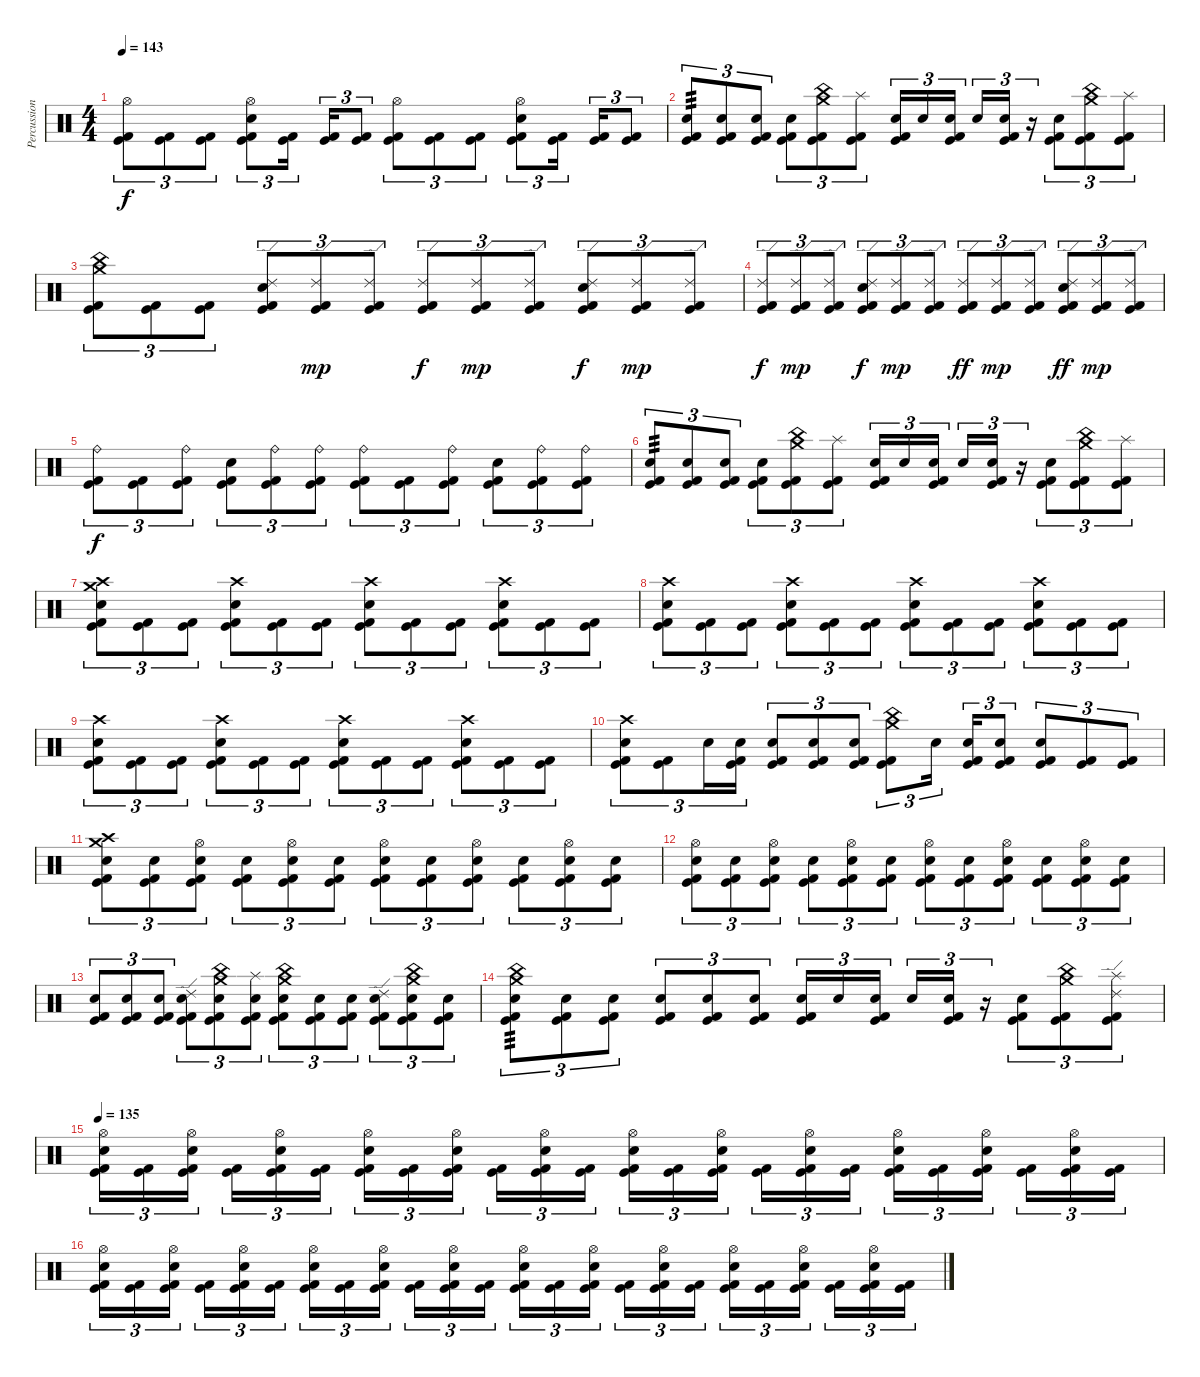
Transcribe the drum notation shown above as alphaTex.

\track ("Percussion" "Percussion") {instrument percussion}
\staff {score}
\articulation defaults
\ts (4 4)
\tempo 143
\clef neutral
\ks c
("Hi-Hat (open)" "Kick (hit)" "Kick (hit) 2").8{tu (3 2) dy f} ("Kick (hit)" "Kick (hit) 2").8{tu (3 2)} ("Kick (hit)" "Kick (hit) 2").8{tu (3 2)} ("Hi-Hat (open)" "Electric Snare (hit)" "Kick (hit)" "Kick (hit) 2").8{tu (3 2)} ("Kick (hit)" "Kick (hit) 2").16{tu (3 2) beam splitsecondary} ("Kick (hit)" "Kick (hit) 2").16{tu (3 2)} ("Kick (hit)" "Kick (hit) 2").8{tu (3 2)} ("Hi-Hat (open)" "Kick (hit)" "Kick (hit) 2").8{tu (3 2)} ("Kick (hit)" "Kick (hit) 2").8{tu (3 2)} ("Kick (hit)" "Kick (hit) 2").8{tu (3 2)} ("Hi-Hat (open)" "Electric Snare (hit)" "Kick (hit)" "Kick (hit) 2").8{tu (3 2)} ("Kick (hit)" "Kick (hit) 2").16{tu (3 2) beam splitsecondary} ("Kick (hit)" "Kick (hit) 2").16{tu (3 2)} ("Kick (hit)" "Kick (hit) 2").8{tu (3 2)} |
("Electric Snare (hit)" "Kick (hit)" "Kick (hit) 2").8{tu (3 2) tp 3} ("Electric Snare (hit)" "Kick (hit)" "Kick (hit) 2").8{tu (3 2)} ("Electric Snare (hit)" "Kick (hit)" "Kick (hit) 2").8{tu (3 2)} ("Electric Snare (hit)" "Kick (hit)" "Kick (hit) 2").8{tu (3 2)} ("Crash medium (hit)" "China (hit)" "Kick (hit)" "Kick (hit) 2").8{tu (3 2)} ("Splash (hit)" "Kick (hit)" "Kick (hit) 2").8{tu (3 2)} ("Electric Snare (hit)" "Kick (hit)" "Kick (hit) 2").16{tu (3 2)} "Electric Snare (hit)".16{tu (3 2)} ("Electric Snare (hit)" "Kick (hit)" "Kick (hit) 2").16{tu (3 2) beam splitsecondary} "Electric Snare (hit)".16{tu (3 2)} ("Electric Snare (hit)" "Kick (hit)" "Kick (hit) 2").16{tu (3 2)} r.16{tu (3 2)} ("Electric Snare (hit)" "Kick (hit)" "Kick (hit) 2").8{tu (3 2)} ("Crash medium (hit)" "China (hit)" "Kick (hit)" "Kick (hit) 2").8{tu (3 2)} ("Splash (hit)" "Kick (hit)" "Kick (hit) 2").8{tu (3 2)} |
("Crash medium (hit)" "China (hit)" "Kick (hit)" "Kick (hit) 2").8{tu (3 2)} ("Kick (hit)" "Kick (hit) 2").8{tu (3 2)} ("Kick (hit)" "Kick (hit) 2").8{tu (3 2)} ("Ride (edge) 2" "Electric Snare (hit)" "Kick (hit)" "Kick (hit) 2").8{tu (3 2)} ("Ride (edge) 2" "Kick (hit)" "Kick (hit) 2").8{tu (3 2) dy mp} ("Ride (edge) 2" "Kick (hit)" "Kick (hit) 2").8{tu (3 2)} ("Ride (edge) 2" "Kick (hit)" "Kick (hit) 2").8{tu (3 2) dy f} ("Ride (edge) 2" "Kick (hit)" "Kick (hit) 2").8{tu (3 2) dy mp} ("Ride (edge) 2" "Kick (hit)" "Kick (hit) 2").8{tu (3 2)} ("Ride (edge) 2" "Electric Snare (hit)" "Kick (hit)" "Kick (hit) 2").8{tu (3 2) dy f} ("Ride (edge) 2" "Kick (hit)" "Kick (hit) 2").8{tu (3 2) dy mp} ("Ride (edge) 2" "Kick (hit)" "Kick (hit) 2").8{tu (3 2)} |
("Ride (edge) 2" "Kick (hit)" "Kick (hit) 2").8{tu (3 2) dy f} ("Ride (edge) 2" "Kick (hit)" "Kick (hit) 2").8{tu (3 2) dy mp} ("Ride (edge) 2" "Kick (hit)" "Kick (hit) 2").8{tu (3 2)} ("Ride (edge) 2" "Electric Snare (hit)" "Kick (hit)" "Kick (hit) 2").8{tu (3 2) dy f} ("Ride (edge) 2" "Kick (hit)" "Kick (hit) 2").8{tu (3 2) dy mp} ("Ride (edge) 2" "Kick (hit)" "Kick (hit) 2").8{tu (3 2)} ("Ride (edge) 2" "Kick (hit)" "Kick (hit) 2").8{tu (3 2) dy ff} ("Ride (edge) 2" "Kick (hit)" "Kick (hit) 2").8{tu (3 2) dy mp} ("Ride (edge) 2" "Kick (hit)" "Kick (hit) 2").8{tu (3 2)} ("Ride (edge) 2" "Electric Snare (hit)" "Kick (hit)" "Kick (hit) 2").8{tu (3 2) dy ff} ("Ride (edge) 2" "Kick (hit)" "Kick (hit) 2").8{tu (3 2) dy mp} ("Ride (edge) 2" "Kick (hit)" "Kick (hit) 2").8{tu (3 2)} |
("Ride (bell)" "Kick (hit)" "Kick (hit) 2").8{tu (3 2) dy f} ("Kick (hit)" "Kick (hit) 2").8{tu (3 2)} ("Ride (bell)" "Kick (hit)" "Kick (hit) 2").8{tu (3 2)} ("Electric Snare (hit)" "Kick (hit)" "Kick (hit) 2").8{tu (3 2)} ("Ride (bell)" "Kick (hit)" "Kick (hit) 2").8{tu (3 2)} ("Ride (bell)" "Kick (hit)" "Kick (hit) 2").8{tu (3 2)} ("Ride (bell)" "Kick (hit)" "Kick (hit) 2").8{tu (3 2)} ("Kick (hit)" "Kick (hit) 2").8{tu (3 2)} ("Ride (bell)" "Kick (hit)" "Kick (hit) 2").8{tu (3 2)} ("Electric Snare (hit)" "Kick (hit)" "Kick (hit) 2").8{tu (3 2)} ("Ride (bell)" "Kick (hit)" "Kick (hit) 2").8{tu (3 2)} ("Ride (bell)" "Kick (hit)" "Kick (hit) 2").8{tu (3 2)} |
("Electric Snare (hit)" "Kick (hit)" "Kick (hit) 2").8{tu (3 2) tp 3} ("Electric Snare (hit)" "Kick (hit)" "Kick (hit) 2").8{tu (3 2)} ("Electric Snare (hit)" "Kick (hit)" "Kick (hit) 2").8{tu (3 2)} ("Electric Snare (hit)" "Kick (hit)" "Kick (hit) 2").8{tu (3 2)} ("Crash medium (hit)" "China (hit)" "Kick (hit)" "Kick (hit) 2").8{tu (3 2)} ("Splash (hit)" "Kick (hit)" "Kick (hit) 2").8{tu (3 2)} ("Electric Snare (hit)" "Kick (hit)" "Kick (hit) 2").16{tu (3 2)} "Electric Snare (hit)".16{tu (3 2)} ("Electric Snare (hit)" "Kick (hit)" "Kick (hit) 2").16{tu (3 2) beam splitsecondary} "Electric Snare (hit)".16{tu (3 2)} ("Electric Snare (hit)" "Kick (hit)" "Kick (hit) 2").16{tu (3 2)} r.16{tu (3 2)} ("Electric Snare (hit)" "Kick (hit)" "Kick (hit) 2").8{tu (3 2)} ("Crash medium (hit)" "China (hit)" "Kick (hit)" "Kick (hit) 2").8{tu (3 2)} ("Splash (hit)" "Kick (hit)" "Kick (hit) 2").8{tu (3 2)} |
("Crash medium (hit)" "Crash high (hit)" "Electric Snare (hit)" "Kick (hit)" "Kick (hit) 2").8{tu (3 2)} ("Kick (hit)" "Kick (hit) 2").8{tu (3 2)} ("Kick (hit)" "Kick (hit) 2").8{tu (3 2)} ("Crash high (hit)" "Electric Snare (hit)" "Kick (hit)" "Kick (hit) 2").8{tu (3 2)} ("Kick (hit)" "Kick (hit) 2").8{tu (3 2)} ("Kick (hit)" "Kick (hit) 2").8{tu (3 2)} ("Crash high (hit)" "Electric Snare (hit)" "Kick (hit)" "Kick (hit) 2").8{tu (3 2)} ("Kick (hit)" "Kick (hit) 2").8{tu (3 2)} ("Kick (hit)" "Kick (hit) 2").8{tu (3 2)} ("Crash high (hit)" "Electric Snare (hit)" "Kick (hit)" "Kick (hit) 2").8{tu (3 2)} ("Kick (hit)" "Kick (hit) 2").8{tu (3 2)} ("Kick (hit)" "Kick (hit) 2").8{tu (3 2)} |
("Crash high (hit)" "Electric Snare (hit)" "Kick (hit)" "Kick (hit) 2").8{tu (3 2)} ("Kick (hit)" "Kick (hit) 2").8{tu (3 2)} ("Kick (hit)" "Kick (hit) 2").8{tu (3 2)} ("Crash high (hit)" "Electric Snare (hit)" "Kick (hit)" "Kick (hit) 2").8{tu (3 2)} ("Kick (hit)" "Kick (hit) 2").8{tu (3 2)} ("Kick (hit)" "Kick (hit) 2").8{tu (3 2)} ("Crash high (hit)" "Electric Snare (hit)" "Kick (hit)" "Kick (hit) 2").8{tu (3 2)} ("Kick (hit)" "Kick (hit) 2").8{tu (3 2)} ("Kick (hit)" "Kick (hit) 2").8{tu (3 2)} ("Crash high (hit)" "Electric Snare (hit)" "Kick (hit)" "Kick (hit) 2").8{tu (3 2)} ("Kick (hit)" "Kick (hit) 2").8{tu (3 2)} ("Kick (hit)" "Kick (hit) 2").8{tu (3 2)} |
("Crash high (hit)" "Electric Snare (hit)" "Kick (hit)" "Kick (hit) 2").8{tu (3 2)} ("Kick (hit)" "Kick (hit) 2").8{tu (3 2)} ("Kick (hit)" "Kick (hit) 2").8{tu (3 2)} ("Crash high (hit)" "Electric Snare (hit)" "Kick (hit)" "Kick (hit) 2").8{tu (3 2)} ("Kick (hit)" "Kick (hit) 2").8{tu (3 2)} ("Kick (hit)" "Kick (hit) 2").8{tu (3 2)} ("Crash high (hit)" "Electric Snare (hit)" "Kick (hit)" "Kick (hit) 2").8{tu (3 2)} ("Kick (hit)" "Kick (hit) 2").8{tu (3 2)} ("Kick (hit)" "Kick (hit) 2").8{tu (3 2)} ("Crash high (hit)" "Electric Snare (hit)" "Kick (hit)" "Kick (hit) 2").8{tu (3 2)} ("Kick (hit)" "Kick (hit) 2").8{tu (3 2)} ("Kick (hit)" "Kick (hit) 2").8{tu (3 2)} |
("Crash high (hit)" "Electric Snare (hit)" "Kick (hit)" "Kick (hit) 2").8{tu (3 2)} ("Kick (hit)" "Kick (hit) 2").8{tu (3 2)} "Electric Snare (hit)".16{tu (3 2)} ("Electric Snare (hit)" "Kick (hit)" "Kick (hit) 2").16{tu (3 2)} ("Electric Snare (hit)" "Kick (hit)" "Kick (hit) 2").8{tu (3 2)} ("Electric Snare (hit)" "Kick (hit)" "Kick (hit) 2").8{tu (3 2)} ("Electric Snare (hit)" "Kick (hit)" "Kick (hit) 2").8{tu (3 2)} ("Crash medium (hit)" "China (hit)" "Kick (hit)" "Kick (hit) 2").8{tu (3 2)} "Electric Snare (hit)".16{tu (3 2) beam splitsecondary} ("Electric Snare (hit)" "Kick (hit)" "Kick (hit) 2").16{tu (3 2)} ("Electric Snare (hit)" "Kick (hit)" "Kick (hit) 2").8{tu (3 2)} ("Electric Snare (hit)" "Kick (hit)" "Kick (hit) 2").8{tu (3 2)} ("Kick (hit)" "Kick (hit) 2").8{tu (3 2)} ("Kick (hit)" "Kick (hit) 2").8{tu (3 2)} |
("Crash medium (hit)" "Crash high (hit)" "Electric Snare (hit)" "Kick (hit)" "Kick (hit) 2").8{tu (3 2)} ("Electric Snare (hit)" "Kick (hit)" "Kick (hit) 2").8{tu (3 2)} ("Hi-Hat (open)" "Electric Snare (hit)" "Kick (hit)" "Kick (hit) 2").8{tu (3 2)} ("Electric Snare (hit)" "Kick (hit)" "Kick (hit) 2").8{tu (3 2)} ("Hi-Hat (open)" "Electric Snare (hit)" "Kick (hit)" "Kick (hit) 2").8{tu (3 2)} ("Electric Snare (hit)" "Kick (hit)" "Kick (hit) 2").8{tu (3 2)} ("Hi-Hat (open)" "Electric Snare (hit)" "Kick (hit)" "Kick (hit) 2").8{tu (3 2)} ("Electric Snare (hit)" "Kick (hit)" "Kick (hit) 2").8{tu (3 2)} ("Hi-Hat (open)" "Electric Snare (hit)" "Kick (hit)" "Kick (hit) 2").8{tu (3 2)} ("Electric Snare (hit)" "Kick (hit)" "Kick (hit) 2").8{tu (3 2)} ("Hi-Hat (open)" "Electric Snare (hit)" "Kick (hit)" "Kick (hit) 2").8{tu (3 2)} ("Electric Snare (hit)" "Kick (hit)" "Kick (hit) 2").8{tu (3 2)} |
("Hi-Hat (open)" "Electric Snare (hit)" "Kick (hit)" "Kick (hit) 2").8{tu (3 2)} ("Electric Snare (hit)" "Kick (hit)" "Kick (hit) 2").8{tu (3 2)} ("Hi-Hat (open)" "Electric Snare (hit)" "Kick (hit)" "Kick (hit) 2").8{tu (3 2)} ("Electric Snare (hit)" "Kick (hit)" "Kick (hit) 2").8{tu (3 2)} ("Hi-Hat (open)" "Electric Snare (hit)" "Kick (hit)" "Kick (hit) 2").8{tu (3 2)} ("Electric Snare (hit)" "Kick (hit)" "Kick (hit) 2").8{tu (3 2)} ("Hi-Hat (open)" "Electric Snare (hit)" "Kick (hit)" "Kick (hit) 2").8{tu (3 2)} ("Electric Snare (hit)" "Kick (hit)" "Kick (hit) 2").8{tu (3 2)} ("Hi-Hat (open)" "Electric Snare (hit)" "Kick (hit)" "Kick (hit) 2").8{tu (3 2)} ("Electric Snare (hit)" "Kick (hit)" "Kick (hit) 2").8{tu (3 2)} ("Hi-Hat (open)" "Electric Snare (hit)" "Kick (hit)" "Kick (hit) 2").8{tu (3 2)} ("Electric Snare (hit)" "Kick (hit)" "Kick (hit) 2").8{tu (3 2)} |
("Electric Snare (hit)" "Kick (hit)" "Kick (hit) 2").8{tu (3 2)} ("Electric Snare (hit)" "Kick (hit)" "Kick (hit) 2").8{tu (3 2)} ("Electric Snare (hit)" "Kick (hit)" "Kick (hit) 2").8{tu (3 2)} ("Ride (edge) 2" "Electric Snare (hit)" "Kick (hit)" "Kick (hit) 2").8{tu (3 2)} ("Crash medium (hit)" "China (hit)" "Electric Snare (hit)" "Kick (hit)" "Kick (hit) 2").8{tu (3 2)} ("Splash (hit)" "Electric Snare (hit)" "Kick (hit)" "Kick (hit) 2").8{tu (3 2)} ("Crash medium (hit)" "China (hit)" "Electric Snare (hit)" "Kick (hit)" "Kick (hit) 2").8{tu (3 2)} ("Electric Snare (hit)" "Kick (hit)" "Kick (hit) 2").8{tu (3 2)} ("Electric Snare (hit)" "Kick (hit)" "Kick (hit) 2").8{tu (3 2)} ("Ride (edge) 2" "Electric Snare (hit)" "Kick (hit)" "Kick (hit) 2").8{tu (3 2)} ("Crash medium (hit)" "China (hit)" "Electric Snare (hit)" "Kick (hit)" "Kick (hit) 2").8{tu (3 2)} ("Electric Snare (hit)" "Kick (hit)" "Kick (hit) 2").8{tu (3 2)} |
("Crash medium (hit)" "China (hit)" "Electric Snare (hit)" "Kick (hit)" "Kick (hit) 2").8{tu (3 2) tp 3} ("Electric Snare (hit)" "Kick (hit)" "Kick (hit) 2").8{tu (3 2)} ("Electric Snare (hit)" "Kick (hit)" "Kick (hit) 2").8{tu (3 2)} ("Electric Snare (hit)" "Kick (hit)" "Kick (hit) 2").8{tu (3 2)} ("Electric Snare (hit)" "Kick (hit)" "Kick (hit) 2").8{tu (3 2)} ("Electric Snare (hit)" "Kick (hit)" "Kick (hit) 2").8{tu (3 2)} ("Electric Snare (hit)" "Kick (hit)" "Kick (hit) 2").16{tu (3 2)} "Electric Snare (hit)".16{tu (3 2)} ("Electric Snare (hit)" "Kick (hit)" "Kick (hit) 2").16{tu (3 2) beam splitsecondary} "Electric Snare (hit)".16{tu (3 2)} ("Electric Snare (hit)" "Kick (hit)" "Kick (hit) 2").16{tu (3 2)} r.16{tu (3 2)} ("Electric Snare (hit)" "Kick (hit)" "Kick (hit) 2").8{tu (3 2)} ("Crash medium (hit)" "China (hit)" "Kick (hit)" "Kick (hit) 2").8{tu (3 2)} ("Ride (edge) 2" "Splash (hit)" "Kick (hit)" "Kick (hit) 2").8{tu (3 2)} |
\tempo 135
("Hi-Hat (open)" "Electric Snare (hit)" "Kick (hit)" "Kick (hit) 2").16{tu (3 2)} ("Kick (hit)" "Kick (hit) 2").16{tu (3 2)} ("Hi-Hat (open)" "Electric Snare (hit)" "Kick (hit)" "Kick (hit) 2").16{tu (3 2) beam splitsecondary} ("Kick (hit)" "Kick (hit) 2").16{tu (3 2)} ("Hi-Hat (open)" "Electric Snare (hit)" "Kick (hit)" "Kick (hit) 2").16{tu (3 2)} ("Kick (hit)" "Kick (hit) 2").16{tu (3 2)} ("Hi-Hat (open)" "Electric Snare (hit)" "Kick (hit)" "Kick (hit) 2").16{tu (3 2)} ("Kick (hit)" "Kick (hit) 2").16{tu (3 2)} ("Hi-Hat (open)" "Electric Snare (hit)" "Kick (hit)" "Kick (hit) 2").16{tu (3 2) beam splitsecondary} ("Kick (hit)" "Kick (hit) 2").16{tu (3 2)} ("Hi-Hat (open)" "Electric Snare (hit)" "Kick (hit)" "Kick (hit) 2").16{tu (3 2)} ("Kick (hit)" "Kick (hit) 2").16{tu (3 2)} ("Hi-Hat (open)" "Electric Snare (hit)" "Kick (hit)" "Kick (hit) 2").16{tu (3 2)} ("Kick (hit)" "Kick (hit) 2").16{tu (3 2)} ("Hi-Hat (open)" "Electric Snare (hit)" "Kick (hit)" "Kick (hit) 2").16{tu (3 2) beam splitsecondary} ("Kick (hit)" "Kick (hit) 2").16{tu (3 2)} ("Hi-Hat (open)" "Electric Snare (hit)" "Kick (hit)" "Kick (hit) 2").16{tu (3 2)} ("Kick (hit)" "Kick (hit) 2").16{tu (3 2)} ("Hi-Hat (open)" "Electric Snare (hit)" "Kick (hit)" "Kick (hit) 2").16{tu (3 2)} ("Kick (hit)" "Kick (hit) 2").16{tu (3 2)} ("Hi-Hat (open)" "Electric Snare (hit)" "Kick (hit)" "Kick (hit) 2").16{tu (3 2) beam splitsecondary} ("Kick (hit)" "Kick (hit) 2").16{tu (3 2)} ("Hi-Hat (open)" "Electric Snare (hit)" "Kick (hit)" "Kick (hit) 2").16{tu (3 2)} ("Kick (hit)" "Kick (hit) 2").16{tu (3 2)} |
("Hi-Hat (open)" "Electric Snare (hit)" "Kick (hit)" "Kick (hit) 2").16{tu (3 2)} ("Kick (hit)" "Kick (hit) 2").16{tu (3 2)} ("Hi-Hat (open)" "Electric Snare (hit)" "Kick (hit)" "Kick (hit) 2").16{tu (3 2) beam splitsecondary} ("Kick (hit)" "Kick (hit) 2").16{tu (3 2)} ("Hi-Hat (open)" "Electric Snare (hit)" "Kick (hit)" "Kick (hit) 2").16{tu (3 2)} ("Kick (hit)" "Kick (hit) 2").16{tu (3 2)} ("Hi-Hat (open)" "Electric Snare (hit)" "Kick (hit)" "Kick (hit) 2").16{tu (3 2)} ("Kick (hit)" "Kick (hit) 2").16{tu (3 2)} ("Hi-Hat (open)" "Electric Snare (hit)" "Kick (hit)" "Kick (hit) 2").16{tu (3 2) beam splitsecondary} ("Kick (hit)" "Kick (hit) 2").16{tu (3 2)} ("Hi-Hat (open)" "Electric Snare (hit)" "Kick (hit)" "Kick (hit) 2").16{tu (3 2)} ("Kick (hit)" "Kick (hit) 2").16{tu (3 2)} ("Hi-Hat (open)" "Electric Snare (hit)" "Kick (hit)" "Kick (hit) 2").16{tu (3 2)} ("Kick (hit)" "Kick (hit) 2").16{tu (3 2)} ("Hi-Hat (open)" "Electric Snare (hit)" "Kick (hit)" "Kick (hit) 2").16{tu (3 2) beam splitsecondary} ("Kick (hit)" "Kick (hit) 2").16{tu (3 2)} ("Hi-Hat (open)" "Electric Snare (hit)" "Kick (hit)" "Kick (hit) 2").16{tu (3 2)} ("Kick (hit)" "Kick (hit) 2").16{tu (3 2)} ("Hi-Hat (open)" "Electric Snare (hit)" "Kick (hit)" "Kick (hit) 2").16{tu (3 2)} ("Kick (hit)" "Kick (hit) 2").16{tu (3 2)} ("Hi-Hat (open)" "Electric Snare (hit)" "Kick (hit)" "Kick (hit) 2").16{tu (3 2) beam splitsecondary} ("Kick (hit)" "Kick (hit) 2").16{tu (3 2)} ("Hi-Hat (open)" "Electric Snare (hit)" "Kick (hit)" "Kick (hit) 2").16{tu (3 2)} ("Kick (hit)" "Kick (hit) 2").16{tu (3 2)}
